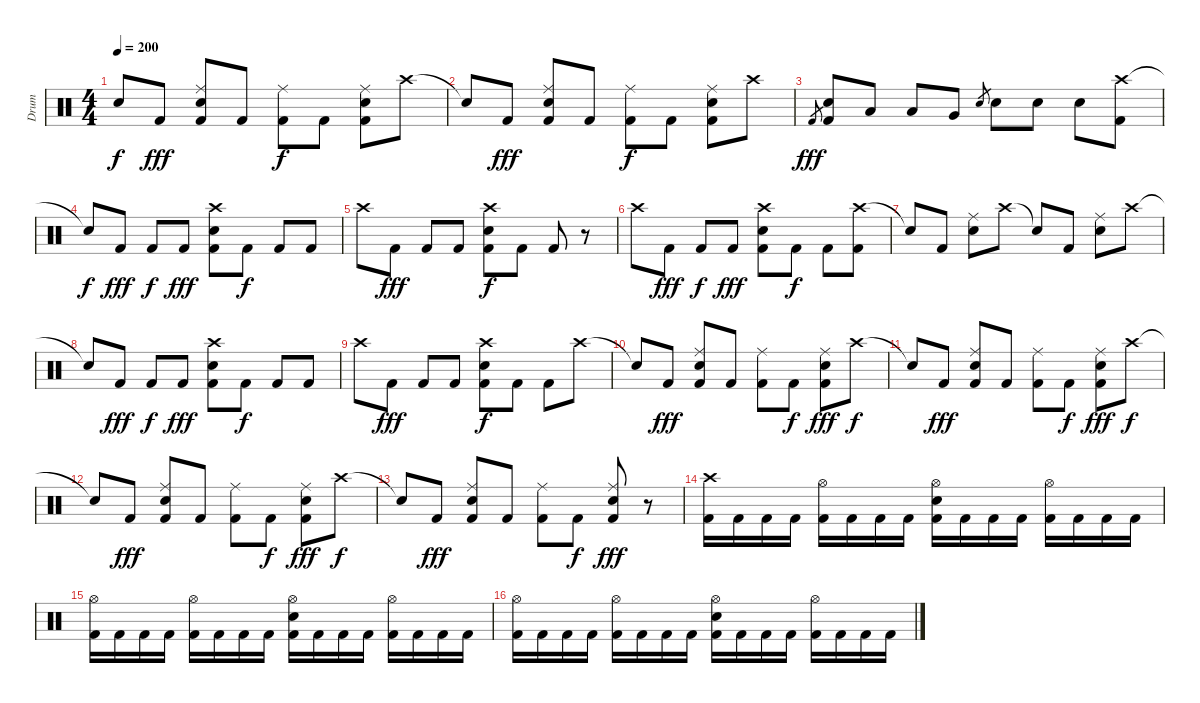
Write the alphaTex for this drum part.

\track ("Drum" "Drum") {instrument percussion}
\staff {score}
\articulation defaults
\ts (4 4)
\tempo 200
\clef neutral
\ks c "Snare (hit)"{t}.8{dy f} "Kick (hit) 2".8{dy fff}
("Ride (middle)" "Electric Snare (hit)" "Kick (hit) 2").8 "Kick (hit) 2".8 ("Ride (middle)" "Kick (hit) 2").8{dy f} "Kick (hit) 2".8 ("Ride (middle)" "Electric Snare (hit)" "Kick (hit) 2").8 "Crash high (hit)".8 |
"Snare (hit)"{t}.8 "Kick (hit) 2".8{dy fff} ("Ride (middle)" "Electric Snare (hit)" "Kick (hit) 2").8 "Kick (hit) 2".8 ("Ride (middle)" "Kick (hit) 2").8{dy f} "Kick (hit) 2".8 ("Ride (middle)" "Electric Snare (hit)" "Kick (hit) 2").8 "Crash high (hit)".8 |
"Kick (hit) 2".8{gr dy fff} ("Electric Snare (hit)" "Kick (hit) 2").8 "Low Tom (hit)".8 "Low Tom (hit)".8 "Very Low Tom (hit)".8 "Electric Snare (hit)".8{gr} "Electric Snare (hit)".8 "Electric Snare (hit)".8 "Electric Snare (hit)".8 ("Crash high (hit)" "Kick (hit) 2").8 |
"Snare (hit)"{t}.8{dy f} "Kick (hit) 2".8{dy fff} "Kick (hit) 2".8{dy f} "Kick (hit) 2".8{dy fff} ("Crash high (hit)" "Electric Snare (hit)" "Kick (hit) 2").8 "Kick (hit) 2".8{dy f} "Kick (hit) 2".8 "Kick (hit) 2".8 |
"Crash high (hit)".8 "Kick (hit) 2".8{dy fff} "Kick (hit) 2".8 "Kick (hit) 2".8 ("Crash high (hit)" "Electric Snare (hit)" "Kick (hit) 2").8{dy f} "Kick (hit) 2".8 "Kick (hit) 2".8 r.8 |
"Crash high (hit)".8 "Kick (hit) 2".8{dy fff} "Kick (hit) 2".8{dy f} "Kick (hit) 2".8{dy fff} ("Crash high (hit)" "Electric Snare (hit)" "Kick (hit) 2").8 "Kick (hit) 2".8{dy f} "Kick (hit) 2".8 ("Crash high (hit)" "Kick (hit) 2").8 |
"Snare (hit)"{t}.8 "Kick (hit) 2".8 ("Ride (middle)" "Electric Snare (hit)").8 "Crash high (hit)".8 "Snare (hit)"{t}.8 "Kick (hit) 2".8 ("Ride (middle)" "Electric Snare (hit)").8 "Crash high (hit)".8 |
"Snare (hit)"{t}.8 "Kick (hit) 2".8{dy fff} "Kick (hit) 2".8{dy f} "Kick (hit) 2".8{dy fff} ("Crash high (hit)" "Electric Snare (hit)" "Kick (hit) 2").8 "Kick (hit) 2".8{dy f} "Kick (hit) 2".8 "Kick (hit) 2".8 |
"Crash high (hit)".8 "Kick (hit) 2".8{dy fff} "Kick (hit) 2".8 "Kick (hit) 2".8 ("Crash high (hit)" "Electric Snare (hit)" "Kick (hit) 2").8{dy f} "Kick (hit) 2".8 "Kick (hit) 2".8 "Crash high (hit)".8 |
"Snare (hit)"{t}.8 "Kick (hit) 2".8{dy fff} ("Ride (middle)" "Electric Snare (hit)" "Kick (hit) 2").8 "Kick (hit) 2".8 ("Ride (middle)" "Kick (hit) 2").8 "Kick (hit) 2".8{dy f} ("Ride (middle)" "Electric Snare (hit)" "Kick (hit) 2").8{dy fff} "Crash high (hit)".8{dy f} |
"Snare (hit)"{t}.8 "Kick (hit) 2".8{dy fff} ("Ride (middle)" "Electric Snare (hit)" "Kick (hit) 2").8 "Kick (hit) 2".8 ("Ride (middle)" "Kick (hit) 2").8 "Kick (hit) 2".8{dy f} ("Ride (middle)" "Electric Snare (hit)" "Kick (hit) 2").8{dy fff} "Crash high (hit)".8{dy f} |
"Snare (hit)"{t}.8 "Kick (hit) 2".8{dy fff} ("Ride (middle)" "Electric Snare (hit)" "Kick (hit) 2").8 "Kick (hit) 2".8 ("Ride (middle)" "Kick (hit) 2").8 "Kick (hit) 2".8{dy f} ("Ride (middle)" "Electric Snare (hit)" "Kick (hit) 2").8{dy fff} "Crash high (hit)".8{dy f} |
"Snare (hit)"{t}.8 "Kick (hit) 2".8{dy fff} ("Ride (middle)" "Electric Snare (hit)" "Kick (hit) 2").8 "Kick (hit) 2".8 ("Ride (middle)" "Kick (hit) 2").8 "Kick (hit) 2".8{dy f} ("Ride (middle)" "Electric Snare (hit)" "Kick (hit) 2").8{dy fff} r.8 |
("Crash high (hit)" "Kick (hit) 2").16 "Kick (hit) 2".16 "Kick (hit) 2".16 "Kick (hit) 2".16 ("Hi-Hat (open)" "Kick (hit) 2").16 "Kick (hit) 2".16 "Kick (hit) 2".16 "Kick (hit) 2".16 ("Hi-Hat (open)" "Electric Snare (hit)" "Kick (hit) 2").16 "Kick (hit) 2".16 "Kick (hit) 2".16 "Kick (hit) 2".16 ("Hi-Hat (open)" "Kick (hit) 2").16 "Kick (hit) 2".16 "Kick (hit) 2".16 "Kick (hit) 2".16 |
("Hi-Hat (open)" "Kick (hit) 2").16 "Kick (hit) 2".16 "Kick (hit) 2".16 "Kick (hit) 2".16 ("Hi-Hat (open)" "Kick (hit) 2").16 "Kick (hit) 2".16 "Kick (hit) 2".16 "Kick (hit) 2".16 ("Hi-Hat (open)" "Electric Snare (hit)" "Kick (hit) 2").16 "Kick (hit) 2".16 "Kick (hit) 2".16 "Kick (hit) 2".16 ("Hi-Hat (open)" "Kick (hit) 2").16 "Kick (hit) 2".16 "Kick (hit) 2".16 "Kick (hit) 2".16 |
("Hi-Hat (open)" "Kick (hit) 2").16 "Kick (hit) 2".16 "Kick (hit) 2".16 "Kick (hit) 2".16 ("Hi-Hat (open)" "Kick (hit) 2").16 "Kick (hit) 2".16 "Kick (hit) 2".16 "Kick (hit) 2".16 ("Hi-Hat (open)" "Electric Snare (hit)" "Kick (hit) 2").16 "Kick (hit) 2".16 "Kick (hit) 2".16 "Kick (hit) 2".16 ("Hi-Hat (open)" "Kick (hit) 2").16 "Kick (hit) 2".16 "Kick (hit) 2".16 "Kick (hit) 2".16
